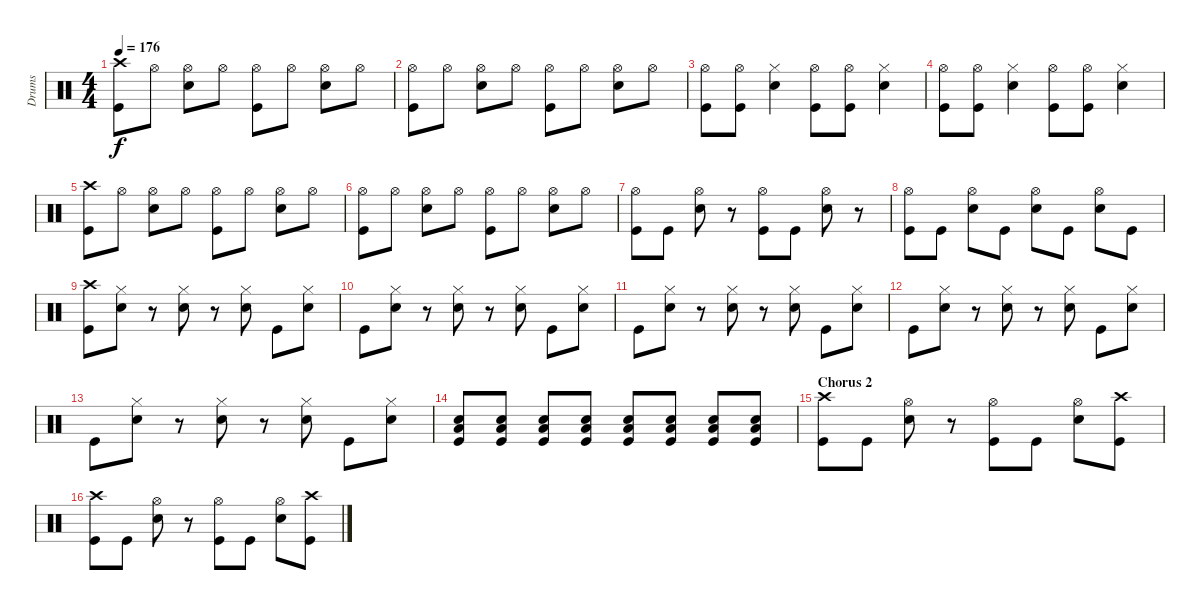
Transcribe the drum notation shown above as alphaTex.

\track ("Drums" "Drums") {instrument percussion}
\staff {score}
\articulation defaults
\ts (4 4)
\tempo 176
\clef neutral
\ks c
("Crash high (hit)" "Kick (hit)").8{dy f} "Hi-Hat (open)".8 ("Hi-Hat (open)" "Snare (hit) 2").8 "Hi-Hat (open)".8 ("Hi-Hat (open)" "Kick (hit)").8 "Hi-Hat (open)".8 ("Hi-Hat (open)" "Snare (hit) 2").8 "Hi-Hat (open)".8 |
("Hi-Hat (open)" "Kick (hit)").8 "Hi-Hat (open)".8 ("Hi-Hat (open)" "Snare (hit) 2").8 "Hi-Hat (open)".8 ("Hi-Hat (open)" "Kick (hit)").8 "Hi-Hat (open)".8 ("Hi-Hat (open)" "Snare (hit) 2").8 "Hi-Hat (open)".8 |
("Hi-Hat (open)" "Kick (hit)").8 ("Hi-Hat (open)" "Kick (hit)").8 ("Hi-Hat (closed)" "Snare (hit) 2").4 ("Hi-Hat (open)" "Kick (hit)").8 ("Hi-Hat (open)" "Kick (hit)").8 ("Hi-Hat (closed)" "Snare (hit) 2").4 |
("Hi-Hat (open)" "Kick (hit)").8 ("Hi-Hat (open)" "Kick (hit)").8 ("Hi-Hat (closed)" "Snare (hit) 2").4 ("Hi-Hat (open)" "Kick (hit)").8 ("Hi-Hat (open)" "Kick (hit)").8 ("Hi-Hat (closed)" "Snare (hit) 2").4 |
("Crash high (hit)" "Kick (hit)").8 "Hi-Hat (open)".8 ("Hi-Hat (open)" "Snare (hit) 2").8 "Hi-Hat (open)".8 ("Hi-Hat (open)" "Kick (hit)").8 "Hi-Hat (open)".8 ("Hi-Hat (open)" "Snare (hit) 2").8 "Hi-Hat (open)".8 |
("Hi-Hat (open)" "Kick (hit)").8 "Hi-Hat (open)".8 ("Hi-Hat (open)" "Snare (hit) 2").8 "Hi-Hat (open)".8 ("Hi-Hat (open)" "Kick (hit)").8 "Hi-Hat (open)".8 ("Hi-Hat (open)" "Snare (hit) 2").8 "Hi-Hat (open)".8 |
("Hi-Hat (open)" "Kick (hit)").8 "Kick (hit)".8 ("Hi-Hat (open)" "Snare (hit) 2").8 r.8 ("Hi-Hat (open)" "Kick (hit)").8 "Kick (hit)".8 ("Hi-Hat (open)" "Snare (hit) 2").8 r.8 |
("Hi-Hat (open)" "Kick (hit)").8 "Kick (hit)".8 ("Hi-Hat (open)" "Snare (hit) 2").8 "Kick (hit)".8 ("Hi-Hat (open)" "Snare (hit) 2").8 "Kick (hit)".8 ("Hi-Hat (open)" "Snare (hit) 2").8 "Kick (hit)".8 |
("Crash high (hit)" "Kick (hit)").8 ("Hi-Hat (closed)" "Snare (hit) 2").8 r.8 ("Hi-Hat (closed)" "Snare (hit) 2").8 r.8 ("Hi-Hat (closed)" "Snare (hit) 2").8 "Kick (hit)".8 ("Hi-Hat (closed)" "Snare (hit) 2").8 |
"Kick (hit)".8 ("Hi-Hat (closed)" "Snare (hit) 2").8 r.8 ("Hi-Hat (closed)" "Snare (hit) 2").8 r.8 ("Hi-Hat (closed)" "Snare (hit) 2").8 "Kick (hit)".8 ("Hi-Hat (closed)" "Snare (hit) 2").8 |
"Kick (hit)".8 ("Hi-Hat (closed)" "Snare (hit) 2").8 r.8 ("Hi-Hat (closed)" "Snare (hit) 2").8 r.8 ("Hi-Hat (closed)" "Snare (hit) 2").8 "Kick (hit)".8 ("Hi-Hat (closed)" "Snare (hit) 2").8 |
"Kick (hit)".8 ("Hi-Hat (closed)" "Snare (hit) 2").8 r.8 ("Hi-Hat (closed)" "Snare (hit) 2").8 r.8 ("Hi-Hat (closed)" "Snare (hit) 2").8 "Kick (hit)".8 ("Hi-Hat (closed)" "Snare (hit) 2").8 |
"Kick (hit)".8 ("Hi-Hat (closed)" "Snare (hit) 2").8 r.8 ("Hi-Hat (closed)" "Snare (hit) 2").8 r.8 ("Hi-Hat (closed)" "Snare (hit) 2").8 "Kick (hit)".8 ("Hi-Hat (closed)" "Snare (hit) 2").8 |
("Snare (hit) 2" "Low Floor Tom (hit)" "Kick (hit)").8{volume 6} ("Snare (hit) 2" "Low Floor Tom (hit)" "Kick (hit)").8{volume 7} ("Snare (hit) 2" "Low Floor Tom (hit)" "Kick (hit)").8{volume 8} ("Snare (hit) 2" "Low Floor Tom (hit)" "Kick (hit)").8{volume 9} ("Snare (hit) 2" "Low Floor Tom (hit)" "Kick (hit)").8{volume 10} ("Snare (hit) 2" "Low Floor Tom (hit)" "Kick (hit)").8{volume 11} ("Snare (hit) 2" "Low Floor Tom (hit)" "Kick (hit)").8{volume 12} ("Snare (hit) 2" "Low Floor Tom (hit)" "Kick (hit)").8 |
\section ("" "Chorus 2")
("Crash high (hit)" "Kick (hit)").8 "Kick (hit)".8 ("Hi-Hat (open)" "Snare (hit) 2").8 r.8 ("Hi-Hat (open)" "Kick (hit)").8 "Kick (hit)".8 ("Hi-Hat (open)" "Snare (hit) 2").8 ("Crash high (hit)" "Kick (hit)").8 |
("Crash high (hit)" "Kick (hit)").8 "Kick (hit)".8 ("Hi-Hat (open)" "Snare (hit) 2").8 r.8 ("Hi-Hat (open)" "Kick (hit)").8 "Kick (hit)".8 ("Hi-Hat (open)" "Snare (hit) 2").8 ("Crash high (hit)" "Kick (hit)").8
